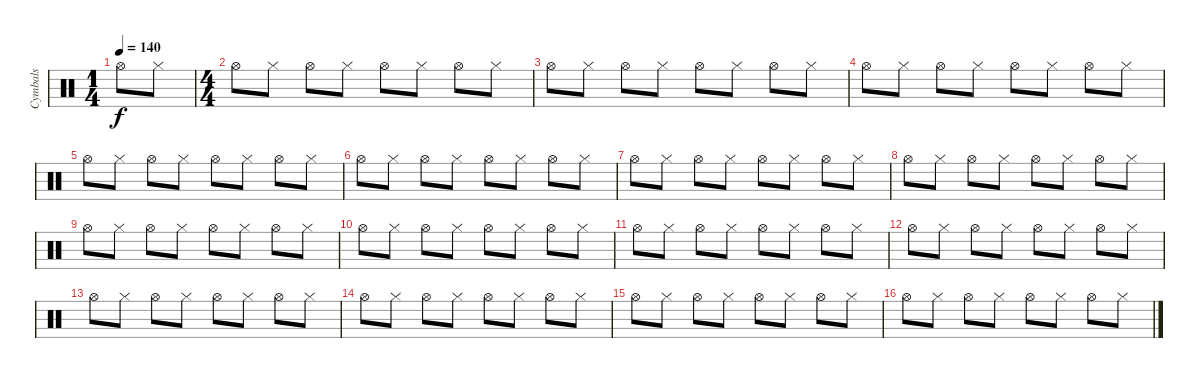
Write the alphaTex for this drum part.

\track ("Cymbals" "Cymbals") {instrument percussion}
\staff {score}
\articulation defaults
\ts (1 4)
\tempo 140
\clef neutral
\ks c "Hi-Hat (open)".8{dy f} "Hi-Hat (closed)".8
|
\ts (4 4)
"Hi-Hat (open)".8 "Hi-Hat (closed)".8 "Hi-Hat (open)".8 "Hi-Hat (closed)".8 "Hi-Hat (open)".8 "Hi-Hat (closed)".8 "Hi-Hat (open)".8 "Hi-Hat (closed)".8 |
"Hi-Hat (open)".8 "Hi-Hat (closed)".8 "Hi-Hat (open)".8 "Hi-Hat (closed)".8 "Hi-Hat (open)".8 "Hi-Hat (closed)".8 "Hi-Hat (open)".8 "Hi-Hat (closed)".8 |
"Hi-Hat (open)".8 "Hi-Hat (closed)".8 "Hi-Hat (open)".8 "Hi-Hat (closed)".8 "Hi-Hat (open)".8 "Hi-Hat (closed)".8 "Hi-Hat (open)".8 "Hi-Hat (closed)".8 |
"Hi-Hat (open)".8 "Hi-Hat (closed)".8 "Hi-Hat (open)".8 "Hi-Hat (closed)".8 "Hi-Hat (open)".8 "Hi-Hat (closed)".8 "Hi-Hat (open)".8 "Hi-Hat (closed)".8 |
"Hi-Hat (open)".8 "Hi-Hat (closed)".8 "Hi-Hat (open)".8 "Hi-Hat (closed)".8 "Hi-Hat (open)".8 "Hi-Hat (closed)".8 "Hi-Hat (open)".8 "Hi-Hat (closed)".8 |
"Hi-Hat (open)".8 "Hi-Hat (closed)".8 "Hi-Hat (open)".8 "Hi-Hat (closed)".8 "Hi-Hat (open)".8 "Hi-Hat (closed)".8 "Hi-Hat (open)".8 "Hi-Hat (closed)".8 |
"Hi-Hat (open)".8 "Hi-Hat (closed)".8 "Hi-Hat (open)".8 "Hi-Hat (closed)".8 "Hi-Hat (open)".8 "Hi-Hat (closed)".8 "Hi-Hat (open)".8 "Hi-Hat (closed)".8 |
"Hi-Hat (open)".8 "Hi-Hat (closed)".8 "Hi-Hat (open)".8 "Hi-Hat (closed)".8 "Hi-Hat (open)".8 "Hi-Hat (closed)".8 "Hi-Hat (open)".8 "Hi-Hat (closed)".8 |
"Hi-Hat (open)".8 "Hi-Hat (closed)".8 "Hi-Hat (open)".8 "Hi-Hat (closed)".8 "Hi-Hat (open)".8 "Hi-Hat (closed)".8 "Hi-Hat (open)".8 "Hi-Hat (closed)".8 |
"Hi-Hat (open)".8 "Hi-Hat (closed)".8 "Hi-Hat (open)".8 "Hi-Hat (closed)".8 "Hi-Hat (open)".8 "Hi-Hat (closed)".8 "Hi-Hat (open)".8 "Hi-Hat (closed)".8 |
"Hi-Hat (open)".8 "Hi-Hat (closed)".8 "Hi-Hat (open)".8 "Hi-Hat (closed)".8 "Hi-Hat (open)".8 "Hi-Hat (closed)".8 "Hi-Hat (open)".8 "Hi-Hat (closed)".8 |
"Hi-Hat (open)".8 "Hi-Hat (closed)".8 "Hi-Hat (open)".8 "Hi-Hat (closed)".8 "Hi-Hat (open)".8 "Hi-Hat (closed)".8 "Hi-Hat (open)".8 "Hi-Hat (closed)".8 |
"Hi-Hat (open)".8 "Hi-Hat (closed)".8 "Hi-Hat (open)".8 "Hi-Hat (closed)".8 "Hi-Hat (open)".8 "Hi-Hat (closed)".8 "Hi-Hat (open)".8 "Hi-Hat (closed)".8 |
"Hi-Hat (open)".8 "Hi-Hat (closed)".8 "Hi-Hat (open)".8 "Hi-Hat (closed)".8 "Hi-Hat (open)".8 "Hi-Hat (closed)".8 "Hi-Hat (open)".8 "Hi-Hat (closed)".8 |
"Hi-Hat (open)".8 "Hi-Hat (closed)".8 "Hi-Hat (open)".8 "Hi-Hat (closed)".8 "Hi-Hat (open)".8 "Hi-Hat (closed)".8 "Hi-Hat (open)".8 "Hi-Hat (closed)".8
